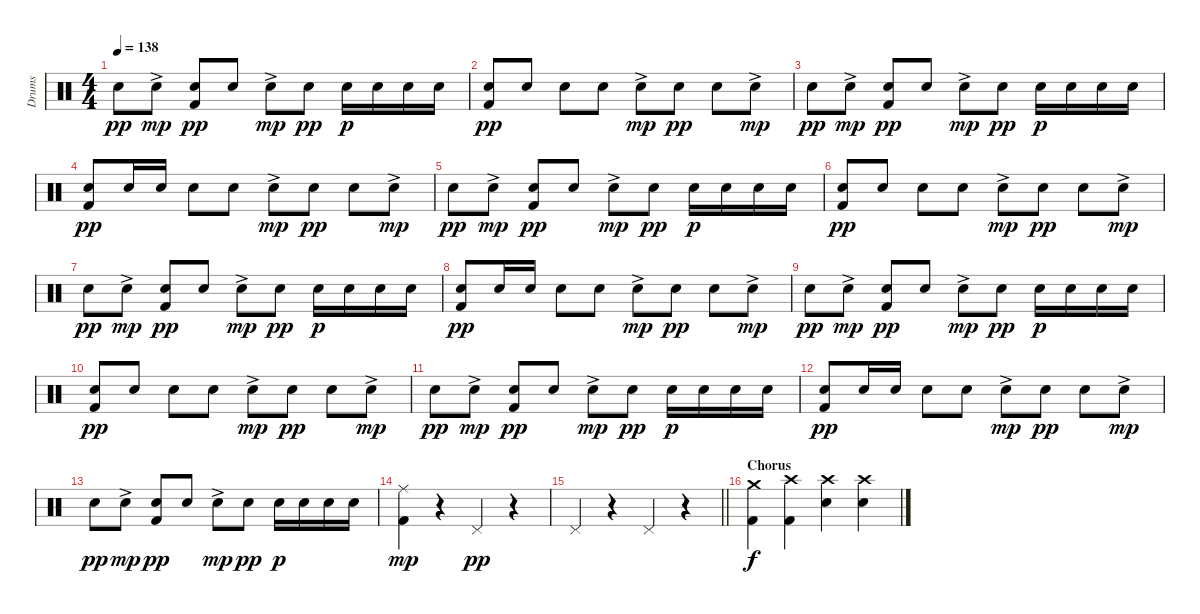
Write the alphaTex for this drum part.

\track ("Drums" "Drums") {instrument percussion}
\staff {score}
\articulation defaults
\ts (4 4)
\tempo 138
\clef neutral
\ks c "Electric Snare (hit)".8{dy pp} "Electric Snare (hit)"{ac}.8{dy mp}
("Electric Snare (hit)" "Kick (hit) 2").8{dy pp} "Electric Snare (hit)".8 "Electric Snare (hit)"{ac}.8{dy mp} "Electric Snare (hit)".8{dy pp} "Electric Snare (hit)".16{dy p} "Electric Snare (hit)".16 "Electric Snare (hit)".16 "Electric Snare (hit)".16 |
("Electric Snare (hit)" "Kick (hit) 2").8{dy pp} "Electric Snare (hit)".8 "Electric Snare (hit)".8 "Electric Snare (hit)".8 "Electric Snare (hit)"{ac}.8{dy mp} "Electric Snare (hit)".8{dy pp} "Electric Snare (hit)".8 "Electric Snare (hit)"{ac}.8{dy mp} |
"Electric Snare (hit)".8{dy pp} "Electric Snare (hit)"{ac}.8{dy mp} ("Electric Snare (hit)" "Kick (hit) 2").8{dy pp} "Electric Snare (hit)".8 "Electric Snare (hit)"{ac}.8{dy mp} "Electric Snare (hit)".8{dy pp} "Electric Snare (hit)".16{dy p} "Electric Snare (hit)".16 "Electric Snare (hit)".16 "Electric Snare (hit)".16 |
("Electric Snare (hit)" "Kick (hit) 2").8{dy pp} "Electric Snare (hit)".16 "Electric Snare (hit)".16 "Electric Snare (hit)".8 "Electric Snare (hit)".8 "Electric Snare (hit)"{ac}.8{dy mp} "Electric Snare (hit)".8{dy pp} "Electric Snare (hit)".8 "Electric Snare (hit)"{ac}.8{dy mp} |
"Electric Snare (hit)".8{dy pp} "Electric Snare (hit)"{ac}.8{dy mp} ("Electric Snare (hit)" "Kick (hit) 2").8{dy pp} "Electric Snare (hit)".8 "Electric Snare (hit)"{ac}.8{dy mp} "Electric Snare (hit)".8{dy pp} "Electric Snare (hit)".16{dy p} "Electric Snare (hit)".16 "Electric Snare (hit)".16 "Electric Snare (hit)".16 |
("Electric Snare (hit)" "Kick (hit) 2").8{dy pp} "Electric Snare (hit)".8 "Electric Snare (hit)".8 "Electric Snare (hit)".8 "Electric Snare (hit)"{ac}.8{dy mp} "Electric Snare (hit)".8{dy pp} "Electric Snare (hit)".8 "Electric Snare (hit)"{ac}.8{dy mp} |
"Electric Snare (hit)".8{dy pp} "Electric Snare (hit)"{ac}.8{dy mp} ("Electric Snare (hit)" "Kick (hit) 2").8{dy pp} "Electric Snare (hit)".8 "Electric Snare (hit)"{ac}.8{dy mp} "Electric Snare (hit)".8{dy pp} "Electric Snare (hit)".16{dy p} "Electric Snare (hit)".16 "Electric Snare (hit)".16 "Electric Snare (hit)".16 |
("Electric Snare (hit)" "Kick (hit) 2").8{dy pp} "Electric Snare (hit)".16 "Electric Snare (hit)".16 "Electric Snare (hit)".8 "Electric Snare (hit)".8 "Electric Snare (hit)"{ac}.8{dy mp} "Electric Snare (hit)".8{dy pp} "Electric Snare (hit)".8 "Electric Snare (hit)"{ac}.8{dy mp} |
"Electric Snare (hit)".8{dy pp} "Electric Snare (hit)"{ac}.8{dy mp} ("Electric Snare (hit)" "Kick (hit) 2").8{dy pp} "Electric Snare (hit)".8 "Electric Snare (hit)"{ac}.8{dy mp} "Electric Snare (hit)".8{dy pp} "Electric Snare (hit)".16{dy p} "Electric Snare (hit)".16 "Electric Snare (hit)".16 "Electric Snare (hit)".16 |
("Electric Snare (hit)" "Kick (hit) 2").8{dy pp} "Electric Snare (hit)".8 "Electric Snare (hit)".8 "Electric Snare (hit)".8 "Electric Snare (hit)"{ac}.8{dy mp} "Electric Snare (hit)".8{dy pp} "Electric Snare (hit)".8 "Electric Snare (hit)"{ac}.8{dy mp} |
"Electric Snare (hit)".8{dy pp} "Electric Snare (hit)"{ac}.8{dy mp} ("Electric Snare (hit)" "Kick (hit) 2").8{dy pp} "Electric Snare (hit)".8 "Electric Snare (hit)"{ac}.8{dy mp} "Electric Snare (hit)".8{dy pp} "Electric Snare (hit)".16{dy p} "Electric Snare (hit)".16 "Electric Snare (hit)".16 "Electric Snare (hit)".16 |
("Electric Snare (hit)" "Kick (hit) 2").8{dy pp} "Electric Snare (hit)".16 "Electric Snare (hit)".16 "Electric Snare (hit)".8 "Electric Snare (hit)".8 "Electric Snare (hit)"{ac}.8{dy mp} "Electric Snare (hit)".8{dy pp} "Electric Snare (hit)".8 "Electric Snare (hit)"{ac}.8{dy mp} |
"Electric Snare (hit)".8{dy pp} "Electric Snare (hit)"{ac}.8{dy mp} ("Electric Snare (hit)" "Kick (hit) 2").8{dy pp} "Electric Snare (hit)".8 "Electric Snare (hit)"{ac}.8{dy mp} "Electric Snare (hit)".8{dy pp} "Electric Snare (hit)".16{dy p} "Electric Snare (hit)".16 "Electric Snare (hit)".16 "Electric Snare (hit)".16 |
("Ride (middle)" "Kick (hit) 2").4{dy mp} r.4 "Pedal Hi-Hat (hit)".4{dy pp} r.4 |
\barLineRight lightlight "Pedal Hi-Hat (hit)".4
r.4 "Pedal Hi-Hat (hit)".4 r.4 |
\section ("" "Chorus")
("Crash medium (hit)" "Kick (hit) 2").4{dy f} ("Crash high (hit)" "Kick (hit) 2").4 ("Crash high (hit)" "Electric Snare (hit)").4 ("Crash high (hit)" "Electric Snare (hit)").4
